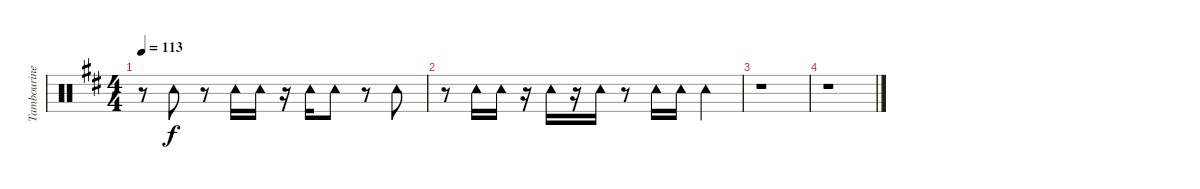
\track ("Tambourine" "Tambourine") {instrument percussion}
\staff {score}
\articulation defaults
\ts (4 4)
\tempo 113
\clef neutral
\ks d
r.8{dy f} "Tambourine (hit)".8 r.8 "Tambourine (hit)".16 "Tambourine (hit)".16 r.16 "Tambourine (hit)".16 "Tambourine (hit)".8 r.8 "Tambourine (hit)".8 |
r.8 "Tambourine (hit)".16 "Tambourine (hit)".16 r.16 "Tambourine (hit)".16 r.16 "Tambourine (hit)".16 r.8 "Tambourine (hit)".16 "Tambourine (hit)".16 "Tambourine (hit)".4 |
r.1 |
r.1
